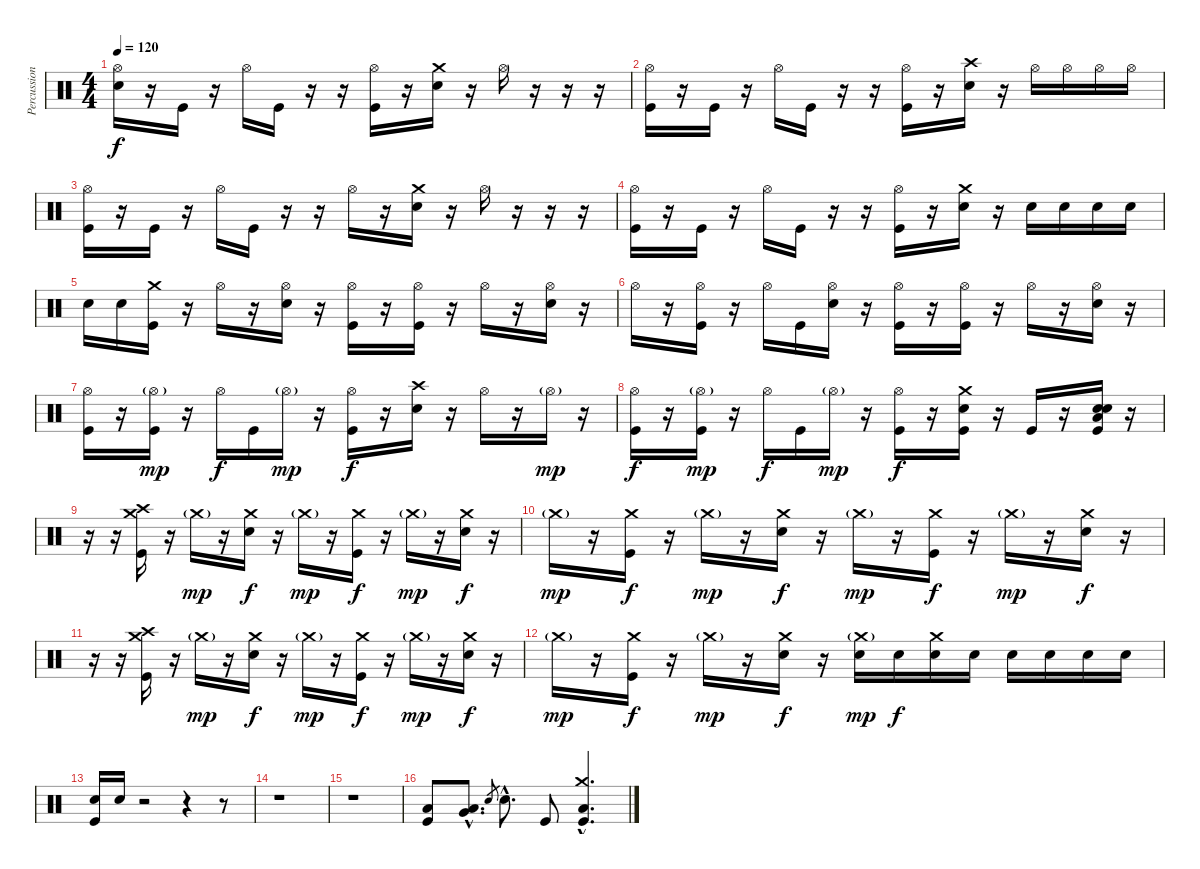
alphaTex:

\track ("Percussion" "Percussion") {instrument percussion}
\staff {score}
\articulation defaults
\ts (4 4)
\tempo 120
\clef neutral
\ks c
("Hi-Hat (open)" "Snare (hit) 2").16{dy f} r.16 "Kick (hit)".16 r.16 "Hi-Hat (open)".16 "Kick (hit)".16 r.16 r.16 ("Hi-Hat (open)" "Kick (hit)").16 r.16 ("Crash medium (hit)" "Snare (hit) 2").16 r.16 "Hi-Hat (open)".16 r.16 r.16 r.16 |
("Hi-Hat (open)" "Kick (hit)").16 r.16 "Kick (hit)".16 r.16 "Hi-Hat (open)".16 "Kick (hit)".16 r.16 r.16 ("Hi-Hat (open)" "Kick (hit)").16 r.16 ("Crash high (hit)" "Snare (hit) 2").16 r.16 "Hi-Hat (open)".16 "Hi-Hat (open)".16 "Hi-Hat (open)".16 "Hi-Hat (open)".16 |
("Hi-Hat (open)" "Kick (hit)").16 r.16 "Kick (hit)".16 r.16 "Hi-Hat (open)".16 "Kick (hit)".16 r.16 r.16 "Hi-Hat (open)".16 r.16 ("Crash medium (hit)" "Snare (hit) 2").16 r.16 "Hi-Hat (open)".16 r.16 r.16 r.16 |
("Hi-Hat (open)" "Kick (hit)").16 r.16 "Kick (hit)".16 r.16 "Hi-Hat (open)".16 "Kick (hit)".16 r.16 r.16 ("Hi-Hat (open)" "Kick (hit)").16 r.16 ("Crash medium (hit)" "Snare (hit) 2").16 r.16 "Snare (hit) 2".16 "Snare (hit) 2".16 "Snare (hit) 2".16 "Snare (hit) 2".16 |
"Snare (hit) 2".16 "Snare (hit) 2".16 ("Crash medium (hit)" "Kick (hit)").16 r.16 "Hi-Hat (open)".16 r.16 ("Hi-Hat (open)" "Snare (hit) 2").16 r.16 ("Hi-Hat (open)" "Kick (hit)").16 r.16 ("Hi-Hat (open)" "Kick (hit)").16 r.16 "Hi-Hat (open)".16 r.16 ("Hi-Hat (open)" "Snare (hit) 2").16 r.16 |
"Hi-Hat (open)".16 r.16 ("Hi-Hat (open)" "Kick (hit)").16 r.16 "Hi-Hat (open)".16 "Kick (hit)".16 ("Hi-Hat (open)" "Snare (hit) 2").16 r.16 ("Hi-Hat (open)" "Kick (hit)").16 r.16 ("Hi-Hat (open)" "Kick (hit)").16 r.16 "Hi-Hat (open)".16 r.16 ("Hi-Hat (open)" "Snare (hit) 2").16 r.16 |
("Hi-Hat (open)" "Kick (hit)").16 r.16 ("Hi-Hat (open)"{g} "Kick (hit)").16{dy mp} r.16 "Hi-Hat (open)".16{dy f} "Kick (hit)".16 "Hi-Hat (open)"{g}.16{dy mp} r.16 ("Hi-Hat (open)" "Kick (hit)").16{dy f} r.16 ("Crash high (hit)" "Snare (hit) 2").16 r.16 "Hi-Hat (open)".16 r.16 "Hi-Hat (open)"{g}.16{dy mp} r.16 |
("Hi-Hat (open)" "Kick (hit)").16{dy f} r.16 ("Hi-Hat (open)"{g} "Kick (hit)").16{dy mp} r.16 "Hi-Hat (open)".16{dy f} "Kick (hit)".16 "Hi-Hat (open)"{g}.16{dy mp} r.16 ("Hi-Hat (open)" "Kick (hit)").16{dy f} r.16 ("Crash medium (hit)" "Snare (hit) 2" "Kick (hit)").16 r.16 "Kick (hit)".16 r.16 ("Low Floor Tom (hit)" "Snare (hit) 2" "Snare (hit) 2" "Kick (hit)").16 r.16 |
r.16 r.16 ("Crash high (hit)" "Crash medium (hit)" "Kick (hit)").16 r.16 "Crash medium (hit)"{g}.16{dy mp} r.16 ("Crash medium (hit)" "Snare (hit) 2").16{dy f} r.16 "Crash medium (hit)"{g}.16{dy mp} r.16 ("Crash medium (hit)" "Kick (hit)").16{dy f} r.16 "Crash medium (hit)"{g}.16{dy mp} r.16 ("Crash medium (hit)" "Snare (hit) 2").16{dy f} r.16 |
"Crash medium (hit)"{g}.16{dy mp} r.16 ("Crash medium (hit)" "Kick (hit)").16{dy f} r.16 "Crash medium (hit)"{g}.16{dy mp} r.16 ("Crash medium (hit)" "Snare (hit) 2").16{dy f} r.16 "Crash medium (hit)"{g}.16{dy mp} r.16 ("Crash medium (hit)" "Kick (hit)").16{dy f} r.16 "Crash medium (hit)"{g}.16{dy mp} r.16 ("Crash medium (hit)" "Snare (hit) 2").16{dy f} r.16 |
r.16 r.16 ("Crash high (hit)" "Crash medium (hit)" "Kick (hit)").16 r.16 "Crash medium (hit)"{g}.16{dy mp} r.16 ("Crash medium (hit)" "Snare (hit) 2").16{dy f} r.16 "Crash medium (hit)"{g}.16{dy mp} r.16 ("Crash medium (hit)" "Kick (hit)").16{dy f} r.16 "Crash medium (hit)"{g}.16{dy mp} r.16 ("Crash medium (hit)" "Snare (hit) 2").16{dy f} r.16 |
"Crash medium (hit)"{g}.16{dy mp} r.16 ("Crash medium (hit)" "Kick (hit)").16{dy f} r.16 "Crash medium (hit)"{g}.16{dy mp} r.16 ("Crash medium (hit)" "Snare (hit) 2").16{dy f} r.16 ("Crash medium (hit)"{g} "Snare (hit) 2").16{dy mp} "Snare (hit) 2".16{dy f} ("Crash medium (hit)" "Snare (hit) 2").16 "Snare (hit) 2".16 "Snare (hit) 2".16 "Snare (hit) 2".16 "Snare (hit) 2".16 "Snare (hit) 2".16 |
("Snare (hit) 2" "Kick (hit)").16 "Snare (hit) 2".16 r.2 r.4 r.8 |
r.1 |
r.1 |
("Low Floor Tom (hit)" "Kick (hit)").8 ("Low Tom (hit)"{hac} "Very Low Tom (hit)"{hac}).8{d} "Snare (hit) 2".8{gr} "Snare (hit) 2"{hac}.8{d} "Kick (hit)".8 ("Crash medium (hit)"{hac} "Low Floor Tom (hit)"{hac} "Kick (hit)"{hac}).4{d}
